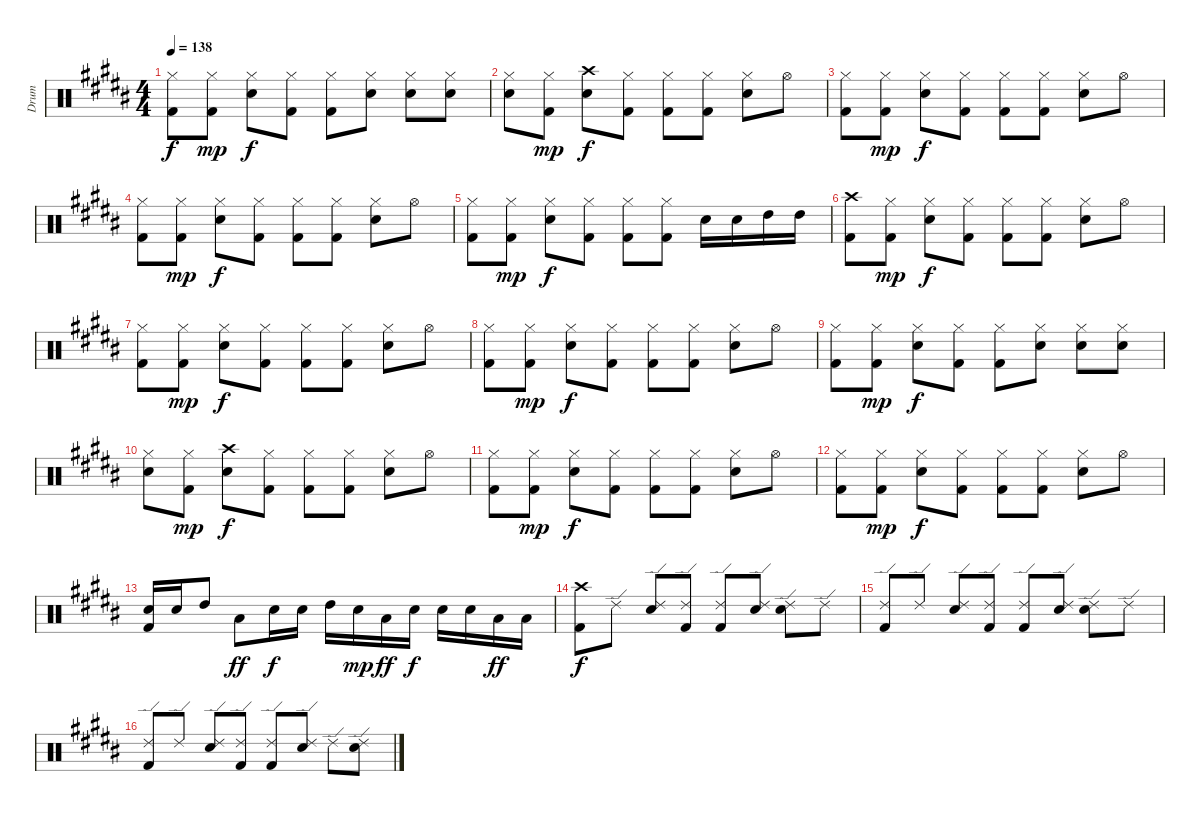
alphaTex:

\track ("Drum" "Drum") {instrument percussion}
\staff {score}
\articulation defaults
\ts (4 4)
\tempo 138
\clef neutral
\ks g#minor
("Hi-Hat (closed)" "Kick (hit) 2").8{dy f} ("Hi-Hat (closed)" "Kick (hit) 2").8{dy mp} ("Hi-Hat (closed)" "Electric Snare (hit)").8{dy f} ("Hi-Hat (closed)" "Kick (hit) 2").8 ("Hi-Hat (closed)" "Kick (hit) 2").8 ("Hi-Hat (closed)" "Electric Snare (hit)").8 ("Hi-Hat (closed)" "Electric Snare (hit)").8 ("Hi-Hat (closed)" "Electric Snare (hit)").8 |
\ks b
("Hi-Hat (closed)" "Electric Snare (hit)").8 ("Hi-Hat (closed)" "Kick (hit) 2").8{dy mp} ("Crash high (hit)" "Electric Snare (hit)").8{dy f} ("Hi-Hat (closed)" "Kick (hit) 2").8 ("Hi-Hat (closed)" "Kick (hit) 2").8 ("Hi-Hat (closed)" "Kick (hit) 2").8 ("Hi-Hat (closed)" "Electric Snare (hit)").8 "Hi-Hat (open)".8 |
\ks g#minor
("Hi-Hat (closed)" "Kick (hit) 2").8 ("Hi-Hat (closed)" "Kick (hit) 2").8{dy mp} ("Hi-Hat (closed)" "Electric Snare (hit)").8{dy f} ("Hi-Hat (closed)" "Kick (hit) 2").8 ("Hi-Hat (closed)" "Kick (hit) 2").8 ("Hi-Hat (closed)" "Kick (hit) 2").8 ("Hi-Hat (closed)" "Electric Snare (hit)").8 "Hi-Hat (open)".8 |
\ks b
("Hi-Hat (closed)" "Kick (hit) 2").8 ("Hi-Hat (closed)" "Kick (hit) 2").8{dy mp} ("Hi-Hat (closed)" "Electric Snare (hit)").8{dy f} ("Hi-Hat (closed)" "Kick (hit) 2").8 ("Hi-Hat (closed)" "Kick (hit) 2").8 ("Hi-Hat (closed)" "Kick (hit) 2").8 ("Hi-Hat (closed)" "Electric Snare (hit)").8 "Hi-Hat (open)".8 |
\ks g#minor
("Hi-Hat (closed)" "Kick (hit) 2").8 ("Hi-Hat (closed)" "Kick (hit) 2").8{dy mp} ("Hi-Hat (closed)" "Electric Snare (hit)").8{dy f} ("Hi-Hat (closed)" "Kick (hit) 2").8 ("Hi-Hat (closed)" "Kick (hit) 2").8 ("Hi-Hat (closed)" "Kick (hit) 2").8 "Electric Snare (hit)".16 "Electric Snare (hit)".16 "High Tom (hit)".16 "High Tom (hit)".16 |
\ks b
("Crash high (hit)" "Kick (hit) 2").8 ("Hi-Hat (closed)" "Kick (hit) 2").8{dy mp} ("Hi-Hat (closed)" "Electric Snare (hit)").8{dy f} ("Hi-Hat (closed)" "Kick (hit) 2").8 ("Hi-Hat (closed)" "Kick (hit) 2").8 ("Hi-Hat (closed)" "Kick (hit) 2").8 ("Hi-Hat (closed)" "Electric Snare (hit)").8 "Hi-Hat (open)".8 |
\ks g#minor
("Hi-Hat (closed)" "Kick (hit) 2").8 ("Hi-Hat (closed)" "Kick (hit) 2").8{dy mp} ("Hi-Hat (closed)" "Electric Snare (hit)").8{dy f} ("Hi-Hat (closed)" "Kick (hit) 2").8 ("Hi-Hat (closed)" "Kick (hit) 2").8 ("Hi-Hat (closed)" "Kick (hit) 2").8 ("Hi-Hat (closed)" "Electric Snare (hit)").8 "Hi-Hat (open)".8 |
\ks b
("Hi-Hat (closed)" "Kick (hit) 2").8 ("Hi-Hat (closed)" "Kick (hit) 2").8{dy mp} ("Hi-Hat (closed)" "Electric Snare (hit)").8{dy f} ("Hi-Hat (closed)" "Kick (hit) 2").8 ("Hi-Hat (closed)" "Kick (hit) 2").8 ("Hi-Hat (closed)" "Kick (hit) 2").8 ("Hi-Hat (closed)" "Electric Snare (hit)").8 "Hi-Hat (open)".8 |
\ks g#minor
("Hi-Hat (closed)" "Kick (hit) 2").8 ("Hi-Hat (closed)" "Kick (hit) 2").8{dy mp} ("Hi-Hat (closed)" "Electric Snare (hit)").8{dy f} ("Hi-Hat (closed)" "Kick (hit) 2").8 ("Hi-Hat (closed)" "Kick (hit) 2").8 ("Hi-Hat (closed)" "Electric Snare (hit)").8 ("Hi-Hat (closed)" "Electric Snare (hit)").8 ("Hi-Hat (closed)" "Electric Snare (hit)").8 |
\ks b
("Hi-Hat (closed)" "Electric Snare (hit)").8 ("Hi-Hat (closed)" "Kick (hit) 2").8{dy mp} ("Crash high (hit)" "Electric Snare (hit)").8{dy f} ("Hi-Hat (closed)" "Kick (hit) 2").8 ("Hi-Hat (closed)" "Kick (hit) 2").8 ("Hi-Hat (closed)" "Kick (hit) 2").8 ("Hi-Hat (closed)" "Electric Snare (hit)").8 "Hi-Hat (open)".8 |
\ks g#minor
("Hi-Hat (closed)" "Kick (hit) 2").8 ("Hi-Hat (closed)" "Kick (hit) 2").8{dy mp} ("Hi-Hat (closed)" "Electric Snare (hit)").8{dy f} ("Hi-Hat (closed)" "Kick (hit) 2").8 ("Hi-Hat (closed)" "Kick (hit) 2").8 ("Hi-Hat (closed)" "Kick (hit) 2").8 ("Hi-Hat (closed)" "Electric Snare (hit)").8 "Hi-Hat (open)".8 |
\ks b
("Hi-Hat (closed)" "Kick (hit) 2").8 ("Hi-Hat (closed)" "Kick (hit) 2").8{dy mp} ("Hi-Hat (closed)" "Electric Snare (hit)").8{dy f} ("Hi-Hat (closed)" "Kick (hit) 2").8 ("Hi-Hat (closed)" "Kick (hit) 2").8 ("Hi-Hat (closed)" "Kick (hit) 2").8 ("Hi-Hat (closed)" "Electric Snare (hit)").8 "Hi-Hat (open)".8 |
\ks g#minor
("Electric Snare (hit)" "Kick (hit) 2").16 "Electric Snare (hit)".16 "High Tom (hit)".8 "Low Floor Tom (hit)".8{dy ff} "Electric Snare (hit)".16{dy f} "Electric Snare (hit)".16 "High Tom (hit)".16 "Electric Snare (hit)".16{dy mp} "Low Floor Tom (hit)".16{dy ff} "Electric Snare (hit)".16{dy f} "Electric Snare (hit)".16 "Electric Snare (hit)".16 "Low Floor Tom (hit)".16{dy ff} "Low Floor Tom (hit)".16 |
\ks b
("Crash high (hit)" "Kick (hit) 2").8{dy f} "Ride (edge) 2".8 ("Ride (edge) 2" "Electric Snare (hit)").8 ("Ride (edge) 2" "Kick (hit) 2").8 ("Ride (edge) 2" "Kick (hit) 2").8 ("Ride (edge) 2" "Electric Snare (hit)").8 ("Ride (edge) 2" "Electric Snare (hit)").8 "Ride (edge) 2".8 |
\ks g#minor
("Ride (edge) 2" "Kick (hit) 2").8 "Ride (edge) 2".8 ("Ride (edge) 2" "Electric Snare (hit)").8 ("Ride (edge) 2" "Kick (hit) 2").8 ("Ride (edge) 2" "Kick (hit) 2").8 ("Ride (edge) 2" "Electric Snare (hit)").8 ("Ride (edge) 2" "Electric Snare (hit)").8 "Ride (edge) 2".8 |
("Ride (edge) 2" "Kick (hit) 2").8 "Ride (edge) 2".8 ("Ride (edge) 2" "Electric Snare (hit)").8 ("Ride (edge) 2" "Kick (hit) 2").8 ("Ride (edge) 2" "Kick (hit) 2").8 ("Ride (edge) 2" "Electric Snare (hit)").8 "Ride (edge) 2".8 ("Ride (edge) 2" "Electric Snare (hit)").8
